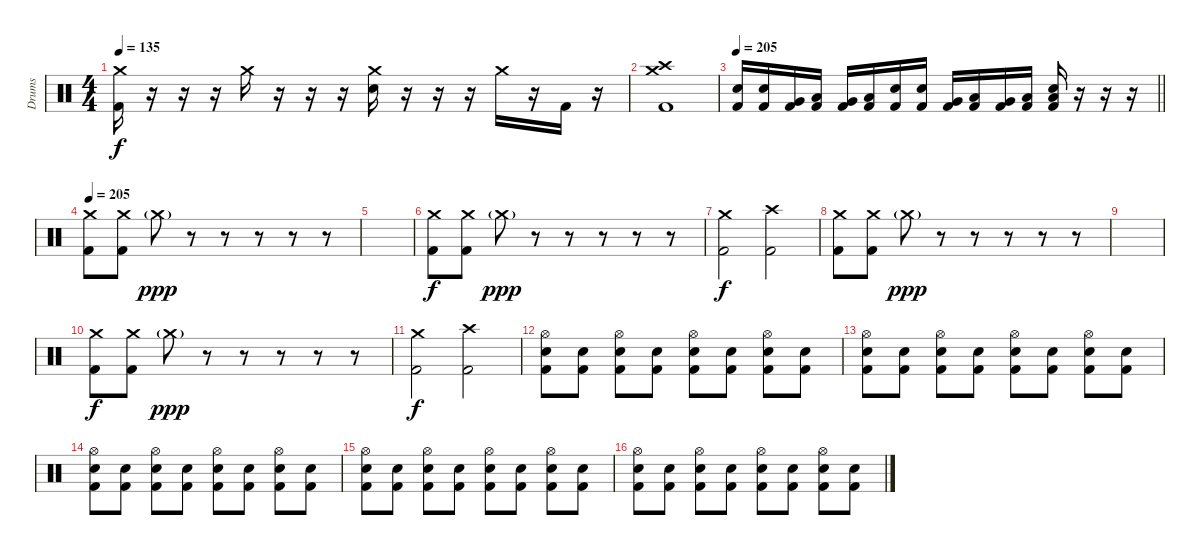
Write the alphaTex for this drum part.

\track ("Drums" "Drums") {instrument percussion}
\staff {score}
\articulation defaults
\ts (4 4)
\tempo 135
\clef neutral
\ks c
("Crash medium (hit)" "Kick (hit) 2").16{dy f} r.16 r.16 r.16 "Crash medium (hit)".16 r.16 r.16 r.16 ("Crash medium (hit)" "Electric Snare (hit)").16 r.16 r.16 r.16 "Crash medium (hit)".16 r.16 "Kick (hit) 2".16 r.16 |
("Crash medium (hit)" "Crash high (hit)" "Kick (hit) 2").1 |
\tempo 205
\barLineRight lightlight
("Electric Snare (hit)" "Kick (hit) 2").16 ("Electric Snare (hit)" "Kick (hit) 2").16 ("Very Low Tom (hit)" "Kick (hit) 2").16 ("Low Floor Tom (hit)" "Kick (hit) 2").16 ("Very Low Tom (hit)" "Kick (hit) 2").16 ("Low Floor Tom (hit)" "Kick (hit) 2").16 ("Electric Snare (hit)" "Kick (hit) 2").16 ("Electric Snare (hit)" "Kick (hit) 2").16 ("Very Low Tom (hit)" "Kick (hit) 2").16 ("Low Floor Tom (hit)" "Kick (hit) 2").16 ("Very Low Tom (hit)" "Kick (hit) 2").16 ("Low Floor Tom (hit)" "Kick (hit) 2").16 ("Electric Snare (hit)" "Low Floor Tom (hit)" "Kick (hit) 2").16 r.16 r.16 r.16 |
\tempo 205
("Crash medium (hit)" "Kick (hit) 2").8 ("Crash medium (hit)" "Kick (hit) 2").8 "Crash medium (hit)"{g}.8{dy ppp volume 0} r.8 r.8 r.8 r.8 r.8 |
|
("Crash medium (hit)" "Kick (hit) 2").8{dy f volume 16} ("Crash medium (hit)" "Kick (hit) 2").8 "Crash medium (hit)"{g}.8{dy ppp volume 0} r.8 r.8 r.8 r.8 r.8 |
("Crash medium (hit)" "Kick (hit) 2").2{dy f volume 16} ("Crash high (hit)" "Kick (hit) 2").2 |
("Crash medium (hit)" "Kick (hit) 2").8 ("Crash medium (hit)" "Kick (hit) 2").8 "Crash medium (hit)"{g}.8{dy ppp volume 0} r.8 r.8 r.8 r.8 r.8 |
|
("Crash medium (hit)" "Kick (hit) 2").8{dy f volume 16} ("Crash medium (hit)" "Kick (hit) 2").8 "Crash medium (hit)"{g}.8{dy ppp volume 0} r.8 r.8 r.8 r.8 r.8 |
("Crash medium (hit)" "Kick (hit) 2").2{dy f volume 16} ("Crash high (hit)" "Kick (hit) 2").2 |
("Hi-Hat (open)" "Electric Snare (hit)" "Kick (hit) 2").8 ("Electric Snare (hit)" "Kick (hit) 2").8 ("Hi-Hat (open)" "Electric Snare (hit)" "Kick (hit) 2").8 ("Electric Snare (hit)" "Kick (hit) 2").8 ("Hi-Hat (open)" "Electric Snare (hit)" "Kick (hit) 2").8 ("Electric Snare (hit)" "Kick (hit) 2").8 ("Hi-Hat (open)" "Electric Snare (hit)" "Kick (hit) 2").8 ("Electric Snare (hit)" "Kick (hit) 2").8 |
("Hi-Hat (open)" "Electric Snare (hit)" "Kick (hit) 2").8 ("Electric Snare (hit)" "Kick (hit) 2").8 ("Hi-Hat (open)" "Electric Snare (hit)" "Kick (hit) 2").8 ("Electric Snare (hit)" "Kick (hit) 2").8 ("Hi-Hat (open)" "Electric Snare (hit)" "Kick (hit) 2").8 ("Electric Snare (hit)" "Kick (hit) 2").8 ("Hi-Hat (open)" "Electric Snare (hit)" "Kick (hit) 2").8 ("Electric Snare (hit)" "Kick (hit) 2").8 |
("Hi-Hat (open)" "Electric Snare (hit)" "Kick (hit) 2").8 ("Electric Snare (hit)" "Kick (hit) 2").8 ("Hi-Hat (open)" "Electric Snare (hit)" "Kick (hit) 2").8 ("Electric Snare (hit)" "Kick (hit) 2").8 ("Hi-Hat (open)" "Electric Snare (hit)" "Kick (hit) 2").8 ("Electric Snare (hit)" "Kick (hit) 2").8 ("Hi-Hat (open)" "Electric Snare (hit)" "Kick (hit) 2").8 ("Electric Snare (hit)" "Kick (hit) 2").8 |
("Hi-Hat (open)" "Electric Snare (hit)" "Kick (hit) 2").8 ("Electric Snare (hit)" "Kick (hit) 2").8 ("Hi-Hat (open)" "Electric Snare (hit)" "Kick (hit) 2").8 ("Electric Snare (hit)" "Kick (hit) 2").8 ("Hi-Hat (open)" "Electric Snare (hit)" "Kick (hit) 2").8 ("Electric Snare (hit)" "Kick (hit) 2").8 ("Hi-Hat (open)" "Electric Snare (hit)" "Kick (hit) 2").8 ("Electric Snare (hit)" "Kick (hit) 2").8 |
("Hi-Hat (open)" "Electric Snare (hit)" "Kick (hit) 2").8 ("Electric Snare (hit)" "Kick (hit) 2").8 ("Hi-Hat (open)" "Electric Snare (hit)" "Kick (hit) 2").8 ("Electric Snare (hit)" "Kick (hit) 2").8 ("Hi-Hat (open)" "Electric Snare (hit)" "Kick (hit) 2").8 ("Electric Snare (hit)" "Kick (hit) 2").8 ("Hi-Hat (open)" "Electric Snare (hit)" "Kick (hit) 2").8 ("Electric Snare (hit)" "Kick (hit) 2").8
